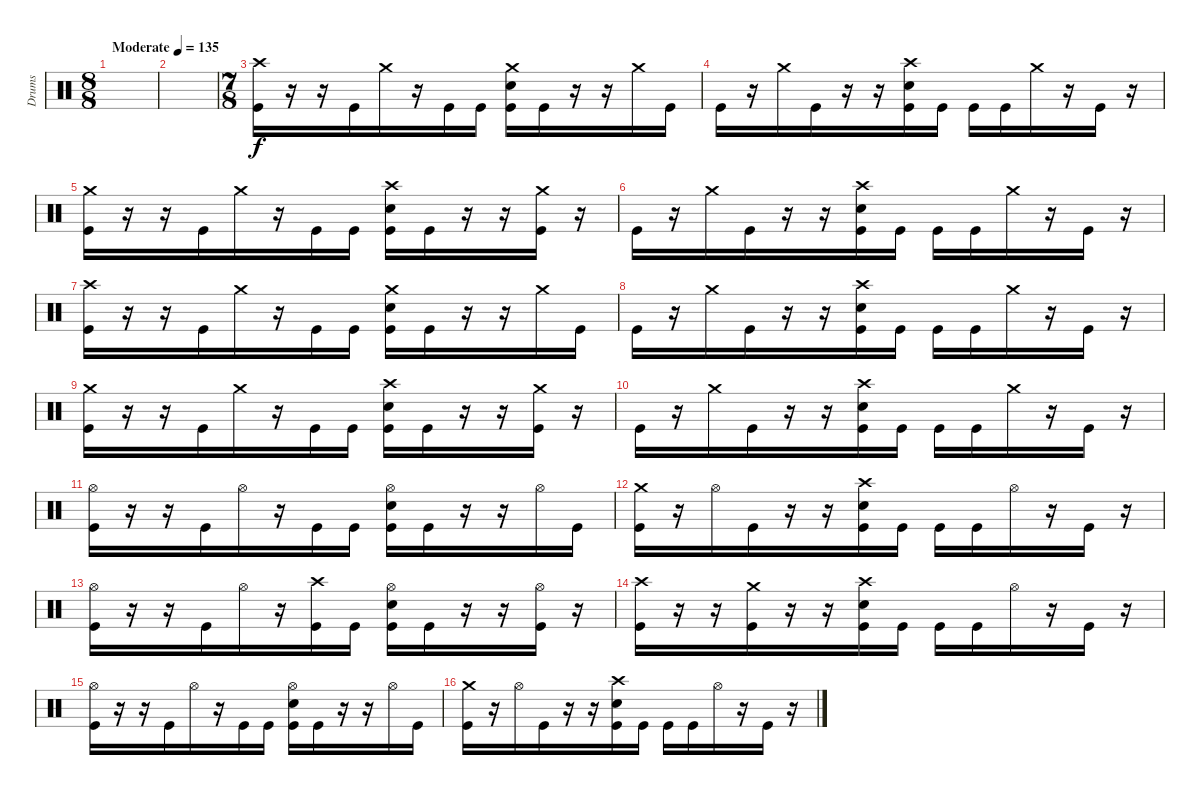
\track ("Drums" "Drums") {instrument percussion}
\staff {score}
\articulation defaults
\ts (8 8)
\tempo (135 "Moderate")
\clef neutral
\ks c
|
|
\ts (7 8)
("Crash high (hit)" "Kick (hit)").16 r.16 r.16 "Kick (hit)".16 "Crash medium (hit)".16 r.16 "Kick (hit)".16 "Kick (hit)".16 ("Crash medium (hit)" "Snare (hit) 2" "Kick (hit)").16 "Kick (hit)".16 r.16 r.16 "Crash medium (hit)".16 "Kick (hit)".16 |
"Kick (hit)".16 r.16 "Crash medium (hit)".16 "Kick (hit)".16 r.16 r.16 ("Crash high (hit)" "Snare (hit) 2" "Kick (hit)").16 "Kick (hit)".16 "Kick (hit)".16 "Kick (hit)".16 "Crash medium (hit)".16 r.16 "Kick (hit)".16 r.16 |
("Crash medium (hit)" "Kick (hit)").16 r.16 r.16 "Kick (hit)".16 "Crash medium (hit)".16 r.16 "Kick (hit)".16 "Kick (hit)".16 ("Crash high (hit)" "Snare (hit) 2" "Kick (hit)").16 "Kick (hit)".16 r.16 r.16 ("Crash medium (hit)" "Kick (hit)").16 r.16 |
"Kick (hit)".16 r.16 "Crash medium (hit)".16 "Kick (hit)".16 r.16 r.16 ("Crash high (hit)" "Snare (hit) 2" "Kick (hit)").16 "Kick (hit)".16 "Kick (hit)".16 "Kick (hit)".16 "Crash medium (hit)".16 r.16 "Kick (hit)".16 r.16 |
("Crash high (hit)" "Kick (hit)").16 r.16 r.16 "Kick (hit)".16 "Crash medium (hit)".16 r.16 "Kick (hit)".16 "Kick (hit)".16 ("Crash medium (hit)" "Snare (hit) 2" "Kick (hit)").16 "Kick (hit)".16 r.16 r.16 "Crash medium (hit)".16 "Kick (hit)".16 |
"Kick (hit)".16 r.16 "Crash medium (hit)".16 "Kick (hit)".16 r.16 r.16 ("Crash high (hit)" "Snare (hit) 2" "Kick (hit)").16 "Kick (hit)".16 "Kick (hit)".16 "Kick (hit)".16 "Crash medium (hit)".16 r.16 "Kick (hit)".16 r.16 |
("Crash medium (hit)" "Kick (hit)").16 r.16 r.16 "Kick (hit)".16 "Crash medium (hit)".16 r.16 "Kick (hit)".16 "Kick (hit)".16 ("Crash high (hit)" "Snare (hit) 2" "Kick (hit)").16 "Kick (hit)".16 r.16 r.16 ("Crash medium (hit)" "Kick (hit)").16 r.16 |
"Kick (hit)".16 r.16 "Crash medium (hit)".16 "Kick (hit)".16 r.16 r.16 ("Crash high (hit)" "Snare (hit) 2" "Kick (hit)").16 "Kick (hit)".16 "Kick (hit)".16 "Kick (hit)".16 "Crash medium (hit)".16 r.16 "Kick (hit)".16 r.16 |
("Hi-Hat (open)" "Kick (hit)").16 r.16 r.16 "Kick (hit)".16 "Hi-Hat (open)".16 r.16 "Kick (hit)".16 "Kick (hit)".16 ("Hi-Hat (open)" "Snare (hit) 2" "Kick (hit)").16 "Kick (hit)".16 r.16 r.16 "Hi-Hat (open)".16 "Kick (hit)".16 |
("Crash medium (hit)" "Kick (hit)").16 r.16 "Hi-Hat (open)".16 "Kick (hit)".16 r.16 r.16 ("Crash high (hit)" "Snare (hit) 2" "Kick (hit)").16 "Kick (hit)".16 "Kick (hit)".16 "Kick (hit)".16 "Hi-Hat (open)".16 r.16 "Kick (hit)".16 r.16 |
("Hi-Hat (open)" "Kick (hit)").16 r.16 r.16 "Kick (hit)".16 "Hi-Hat (open)".16 r.16 ("Crash high (hit)" "Kick (hit)").16 "Kick (hit)".16 ("Hi-Hat (open)" "Snare (hit) 2" "Kick (hit)").16 "Kick (hit)".16 r.16 r.16 ("Hi-Hat (open)" "Kick (hit)").16 r.16 |
("Crash high (hit)" "Kick (hit)").16 r.16 r.16 ("Crash medium (hit)" "Kick (hit)").16 r.16 r.16 ("Crash high (hit)" "Snare (hit) 2" "Kick (hit)").16 "Kick (hit)".16 "Kick (hit)".16 "Kick (hit)".16 "Hi-Hat (open)".16 r.16 "Kick (hit)".16 r.16 |
("Hi-Hat (open)" "Kick (hit)").16 r.16 r.16 "Kick (hit)".16 "Hi-Hat (open)".16 r.16 "Kick (hit)".16 "Kick (hit)".16 ("Hi-Hat (open)" "Snare (hit) 2" "Kick (hit)").16 "Kick (hit)".16 r.16 r.16 "Hi-Hat (open)".16 "Kick (hit)".16 |
("Crash medium (hit)" "Kick (hit)").16 r.16 "Hi-Hat (open)".16 "Kick (hit)".16 r.16 r.16 ("Crash high (hit)" "Snare (hit) 2" "Kick (hit)").16 "Kick (hit)".16 "Kick (hit)".16 "Kick (hit)".16 "Hi-Hat (open)".16 r.16 "Kick (hit)".16 r.16
